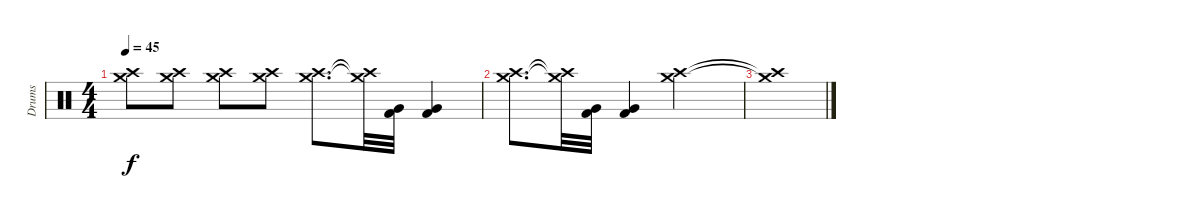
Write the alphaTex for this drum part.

\track ("Drums" "Drums") {instrument percussion}
\staff {score}
\articulation defaults
\ts (4 4)
\tempo 45
\clef neutral
\ks c
("Crash medium (hit)" "Crash high (hit)").8{dy f} ("Crash medium (hit)" "Crash high (hit)").8 ("Crash medium (hit)" "Crash high (hit)").8 ("Crash medium (hit)" "Crash high (hit)").8 ("Crash medium (hit)" "Crash high (hit)").8{d} ("Crash medium (hit)"{t} "Crash high (hit)"{t}).32 ("Very Low Tom (hit)" "Kick (hit) 2").32 ("Very Low Tom (hit)" "Kick (hit) 2").4 |
("Crash medium (hit)" "Crash high (hit)").8{d} ("Crash medium (hit)"{t} "Crash high (hit)"{t}).32 ("Very Low Tom (hit)" "Kick (hit) 2").32 ("Very Low Tom (hit)" "Kick (hit) 2").4 ("Crash medium (hit)" "Crash high (hit)").2 |
("Crash medium (hit)"{t} "Crash high (hit)"{t}).1
